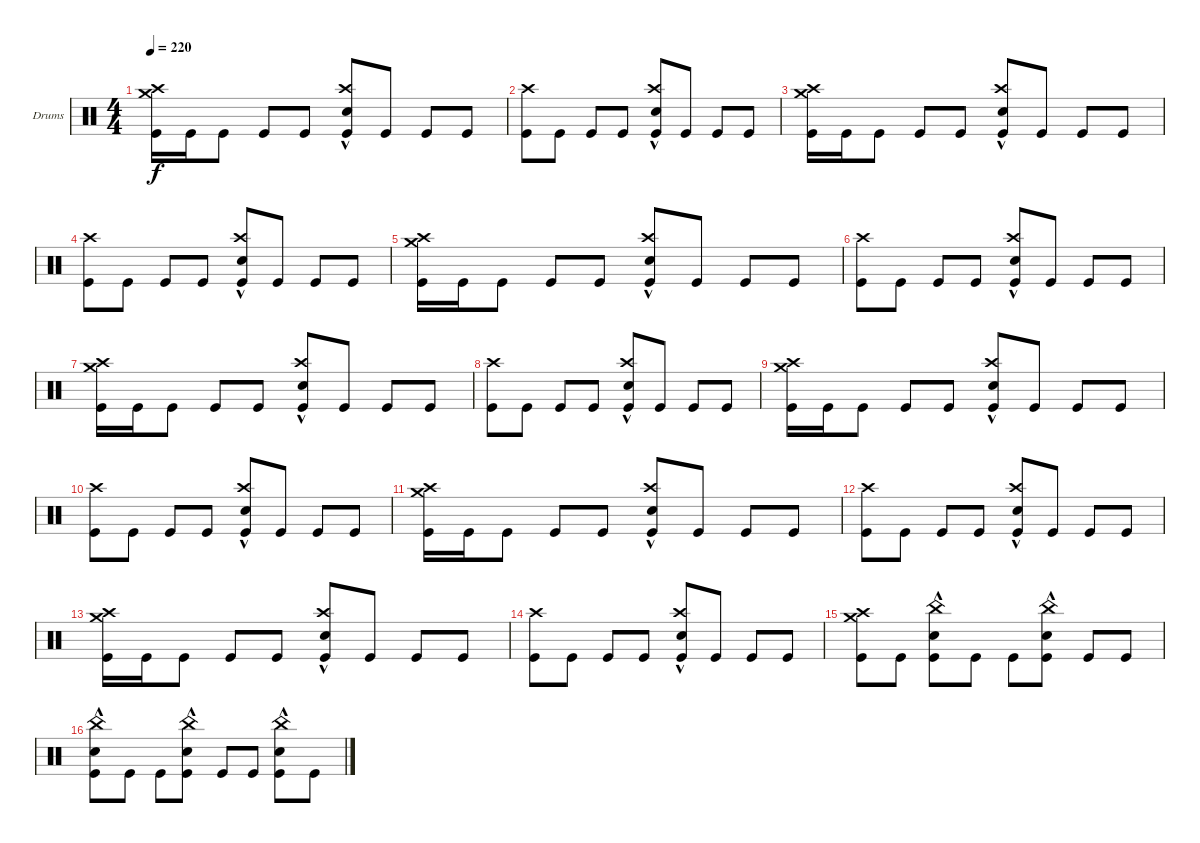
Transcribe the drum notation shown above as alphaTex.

\defaultSystemsLayout 4
\bracketExtendMode groupsimilarinstruments
\firstSystemTrackNameOrientation horizontal
\otherSystemsTrackNameOrientation horizontal
\track ("Drumkit" "Drums") {instrument percussion}
\staff {score}
\articulation defaults
\ts (4 4)
\tempo 220
\clef neutral
\ks c
("Kick (hit)" "Crash medium (hit)" "Crash high (hit)").16{dy f} "Kick (hit)".16 "Kick (hit)".8 "Kick (hit)".8 "Kick (hit)".8 ("Kick (hit)" "Snare (hit) 2"{hac} "Crash high (hit)").8 "Kick (hit)".8 "Kick (hit)".8 "Kick (hit)".8 |
("Kick (hit)" "Crash high (hit)").8 "Kick (hit)".8 "Kick (hit)".8 "Kick (hit)".8 ("Kick (hit)" "Snare (hit) 2"{hac} "Crash high (hit)").8 "Kick (hit)".8 "Kick (hit)".8 "Kick (hit)".8 |
("Kick (hit)" "Crash medium (hit)" "Crash high (hit)").16 "Kick (hit)".16 "Kick (hit)".8 "Kick (hit)".8 "Kick (hit)".8 ("Kick (hit)" "Snare (hit) 2"{hac} "Crash high (hit)").8 "Kick (hit)".8 "Kick (hit)".8 "Kick (hit)".8 |
("Kick (hit)" "Crash high (hit)").8 "Kick (hit)".8 "Kick (hit)".8 "Kick (hit)".8 ("Kick (hit)" "Snare (hit) 2"{hac} "Crash high (hit)").8 "Kick (hit)".8 "Kick (hit)".8 "Kick (hit)".8 |
("Kick (hit)" "Crash medium (hit)" "Crash high (hit)").16 "Kick (hit)".16 "Kick (hit)".8 "Kick (hit)".8 "Kick (hit)".8 ("Kick (hit)" "Snare (hit) 2"{hac} "Crash high (hit)").8 "Kick (hit)".8 "Kick (hit)".8 "Kick (hit)".8 |
("Kick (hit)" "Crash high (hit)").8 "Kick (hit)".8 "Kick (hit)".8 "Kick (hit)".8 ("Kick (hit)" "Snare (hit) 2"{hac} "Crash high (hit)").8 "Kick (hit)".8 "Kick (hit)".8 "Kick (hit)".8 |
("Kick (hit)" "Crash medium (hit)" "Crash high (hit)").16 "Kick (hit)".16 "Kick (hit)".8 "Kick (hit)".8 "Kick (hit)".8 ("Kick (hit)" "Snare (hit) 2"{hac} "Crash high (hit)").8 "Kick (hit)".8 "Kick (hit)".8 "Kick (hit)".8 |
("Kick (hit)" "Crash high (hit)").8 "Kick (hit)".8 "Kick (hit)".8 "Kick (hit)".8 ("Kick (hit)" "Snare (hit) 2"{hac} "Crash high (hit)").8 "Kick (hit)".8 "Kick (hit)".8 "Kick (hit)".8 |
("Kick (hit)" "Crash medium (hit)" "Crash high (hit)").16 "Kick (hit)".16 "Kick (hit)".8 "Kick (hit)".8 "Kick (hit)".8 ("Kick (hit)" "Snare (hit) 2"{hac} "Crash high (hit)").8 "Kick (hit)".8 "Kick (hit)".8 "Kick (hit)".8 |
("Kick (hit)" "Crash high (hit)").8 "Kick (hit)".8 "Kick (hit)".8 "Kick (hit)".8 ("Kick (hit)" "Snare (hit) 2"{hac} "Crash high (hit)").8 "Kick (hit)".8 "Kick (hit)".8 "Kick (hit)".8 |
("Kick (hit)" "Crash medium (hit)" "Crash high (hit)").16 "Kick (hit)".16 "Kick (hit)".8 "Kick (hit)".8 "Kick (hit)".8 ("Kick (hit)" "Snare (hit) 2"{hac} "Crash high (hit)").8 "Kick (hit)".8 "Kick (hit)".8 "Kick (hit)".8 |
("Kick (hit)" "Crash high (hit)").8 "Kick (hit)".8 "Kick (hit)".8 "Kick (hit)".8 ("Kick (hit)" "Snare (hit) 2"{hac} "Crash high (hit)").8 "Kick (hit)".8 "Kick (hit)".8 "Kick (hit)".8 |
("Kick (hit)" "Crash medium (hit)" "Crash high (hit)").16 "Kick (hit)".16 "Kick (hit)".8 "Kick (hit)".8 "Kick (hit)".8 ("Kick (hit)" "Snare (hit) 2"{hac} "Crash high (hit)").8 "Kick (hit)".8 "Kick (hit)".8 "Kick (hit)".8 |
("Kick (hit)" "Crash high (hit)").8 "Kick (hit)".8 "Kick (hit)".8 "Kick (hit)".8 ("Kick (hit)" "Snare (hit) 2"{hac} "Crash high (hit)").8 "Kick (hit)".8 "Kick (hit)".8 "Kick (hit)".8 |
("Kick (hit)" "Crash medium (hit)" "Crash high (hit)").8 "Kick (hit)".8 ("Kick (hit)" "Snare (hit) 2"{hac} "China (hit)").8 "Kick (hit)".8 "Kick (hit)".8 ("Kick (hit)" "Snare (hit) 2"{hac} "China (hit)").8 "Kick (hit)".8 "Kick (hit)".8 |
("Kick (hit)" "Snare (hit) 2"{hac} "China (hit)").8 "Kick (hit)".8 "Kick (hit)".8 ("Kick (hit)" "Snare (hit) 2"{hac} "China (hit)").8 "Kick (hit)".8 "Kick (hit)".8 ("Kick (hit)" "Snare (hit) 2"{hac} "China (hit)").8 "Kick (hit)".8
